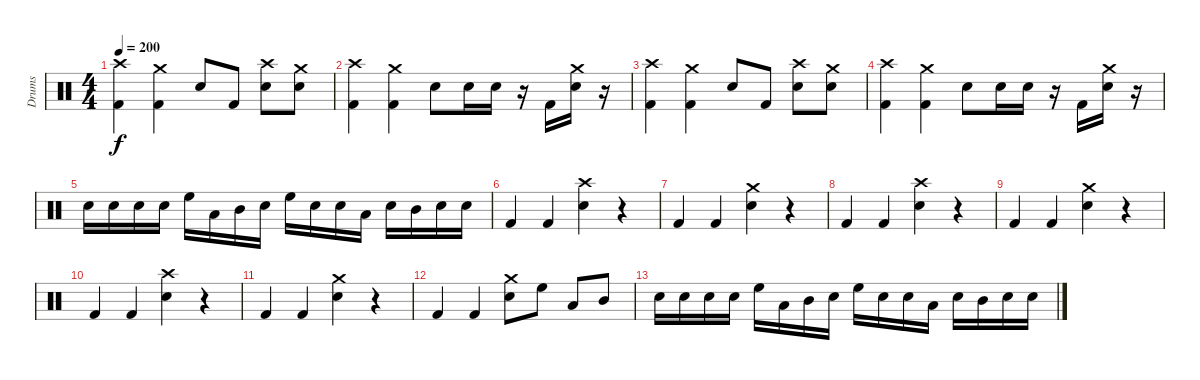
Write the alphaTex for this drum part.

\track ("Drums" "Drums") {instrument percussion}
\staff {score}
\articulation defaults
\ts (4 4)
\tempo 200
\clef neutral
\ks c
("Crash high (hit)" "Kick (hit) 2").4{dy f} ("Crash medium (hit)" "Kick (hit) 2").4 "Electric Snare (hit)".8 "Kick (hit) 2".8 ("Electric Snare (hit)" "Crash high (hit)").8 ("Electric Snare (hit)" "Crash medium (hit)").8 |
("Crash high (hit)" "Kick (hit) 2").4 ("Crash medium (hit)" "Kick (hit) 2").4 "Electric Snare (hit)".8 "Electric Snare (hit)".16 "Electric Snare (hit)".16 r.16 "Kick (hit) 2".16 ("Electric Snare (hit)" "Crash medium (hit)").16 r.16 |
("Crash high (hit)" "Kick (hit) 2").4 ("Crash medium (hit)" "Kick (hit) 2").4 "Electric Snare (hit)".8 "Kick (hit) 2".8 ("Electric Snare (hit)" "Crash high (hit)").8 ("Electric Snare (hit)" "Crash medium (hit)").8 |
("Crash high (hit)" "Kick (hit) 2").4 ("Crash medium (hit)" "Kick (hit) 2").4 "Electric Snare (hit)".8 "Electric Snare (hit)".16 "Electric Snare (hit)".16 r.16 "Kick (hit) 2".16 ("Electric Snare (hit)" "Crash medium (hit)").16 r.16 |
"Electric Snare (hit)".16 "Electric Snare (hit)".16 "Electric Snare (hit)".16 "Electric Snare (hit)".16 "High Floor Tom (hit)".16 "Low Tom (hit)".16 "Mid Tom (hit)".16 "Electric Snare (hit)".16 "High Floor Tom (hit)".16 "Electric Snare (hit)".16 "Electric Snare (hit)".16 "Low Tom (hit)".16 "Electric Snare (hit)".16 "Mid Tom (hit)".16 "Electric Snare (hit)".16 "Electric Snare (hit)".16 |
"Kick (hit) 2".4 "Kick (hit) 2".4 ("Electric Snare (hit)" "Crash high (hit)").4 r.4 |
"Kick (hit) 2".4 "Kick (hit) 2".4 ("Electric Snare (hit)" "Crash medium (hit)").4 r.4 |
"Kick (hit) 2".4 "Kick (hit) 2".4 ("Electric Snare (hit)" "Crash high (hit)").4 r.4 |
"Kick (hit) 2".4 "Kick (hit) 2".4 ("Electric Snare (hit)" "Crash medium (hit)").4 r.4 |
"Kick (hit) 2".4 "Kick (hit) 2".4 ("Electric Snare (hit)" "Crash high (hit)").4 r.4 |
"Kick (hit) 2".4 "Kick (hit) 2".4 ("Electric Snare (hit)" "Crash medium (hit)").4 r.4 |
"Kick (hit) 2".4 "Kick (hit) 2".4 ("Electric Snare (hit)" "Crash medium (hit)").8 "High Floor Tom (hit)".8 "Low Tom (hit)".8 "Mid Tom (hit)".8 |
"Electric Snare (hit)".16 "Electric Snare (hit)".16 "Electric Snare (hit)".16 "Electric Snare (hit)".16 "High Floor Tom (hit)".16 "Low Tom (hit)".16 "Mid Tom (hit)".16 "Electric Snare (hit)".16 "High Floor Tom (hit)".16 "Electric Snare (hit)".16 "Electric Snare (hit)".16 "Low Tom (hit)".16 "Electric Snare (hit)".16 "Mid Tom (hit)".16 "Electric Snare (hit)".16 "Electric Snare (hit)".16
